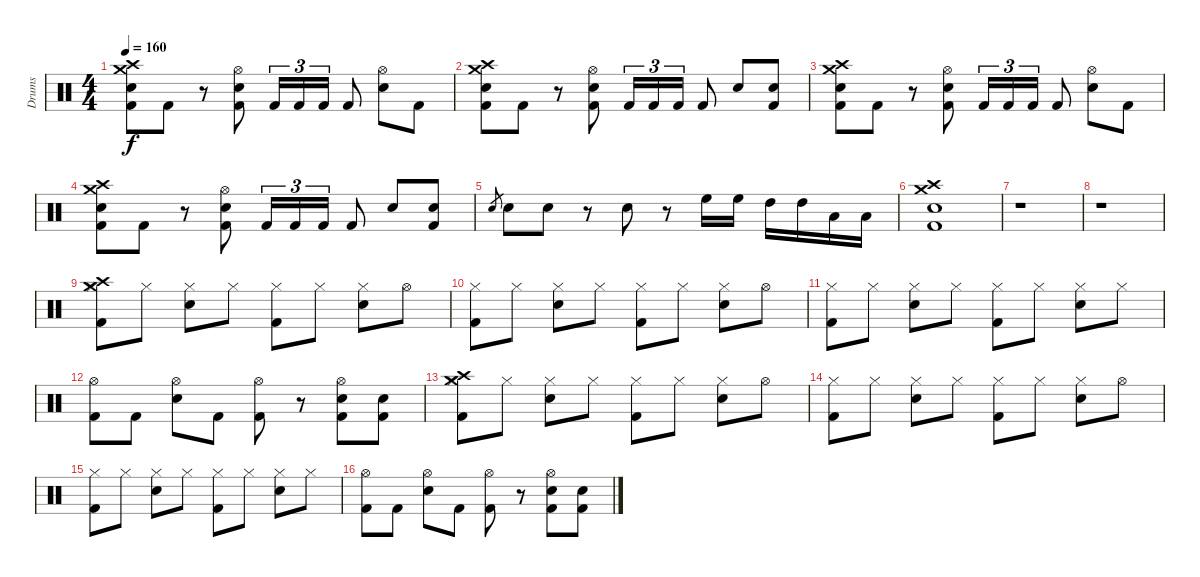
\track ("Drums" "Drums") {instrument percussion}
\staff {score}
\articulation defaults
\ts (4 4)
\tempo 160
\clef neutral
\ks c
("Crash medium (hit)" "Crash high (hit)" "Electric Snare (hit)" "Kick (hit) 2").8{dy f} "Kick (hit) 2".8 r.8 ("Hi-Hat (open)" "Electric Snare (hit)" "Kick (hit) 2").8 "Kick (hit) 2".16{tu (3 2)} "Kick (hit) 2".16{tu (3 2)} "Kick (hit) 2".16{tu (3 2)} "Kick (hit) 2".8 ("Hi-Hat (open)" "Electric Snare (hit)").8 "Kick (hit) 2".8 |
("Crash medium (hit)" "Crash high (hit)" "Electric Snare (hit)" "Kick (hit) 2").8 "Kick (hit) 2".8 r.8 ("Hi-Hat (open)" "Electric Snare (hit)" "Kick (hit) 2").8 "Kick (hit) 2".16{tu (3 2)} "Kick (hit) 2".16{tu (3 2)} "Kick (hit) 2".16{tu (3 2)} "Kick (hit) 2".8 "Electric Snare (hit)".8 ("Electric Snare (hit)" "Kick (hit) 2").8 |
("Crash medium (hit)" "Crash high (hit)" "Electric Snare (hit)" "Kick (hit) 2").8 "Kick (hit) 2".8 r.8 ("Hi-Hat (open)" "Electric Snare (hit)" "Kick (hit) 2").8 "Kick (hit) 2".16{tu (3 2)} "Kick (hit) 2".16{tu (3 2)} "Kick (hit) 2".16{tu (3 2)} "Kick (hit) 2".8 ("Hi-Hat (open)" "Electric Snare (hit)").8 "Kick (hit) 2".8 |
("Crash medium (hit)" "Crash high (hit)" "Electric Snare (hit)" "Kick (hit) 2").8 "Kick (hit) 2".8 r.8 ("Hi-Hat (open)" "Electric Snare (hit)" "Kick (hit) 2").8 "Kick (hit) 2".16{tu (3 2)} "Kick (hit) 2".16{tu (3 2)} "Kick (hit) 2".16{tu (3 2)} "Kick (hit) 2".8 "Electric Snare (hit)".8 ("Electric Snare (hit)" "Kick (hit) 2").8 |
"Electric Snare (hit)".8{gr} "Electric Snare (hit)".8 "Electric Snare (hit)".8 r.8 "Electric Snare (hit)".8 r.8 "High Floor Tom (hit)".16 "High Floor Tom (hit)".16 "High Tom (hit)".16 "High Tom (hit)".16 "Low Tom (hit)".16 "Low Tom (hit)".16 |
("Crash high (hit)" "Crash medium (hit)" "Electric Snare (hit)" "Kick (hit) 2").1 |
r.1 |
r.1 |
("Crash medium (hit)" "Crash high (hit)" "Hi-Hat (closed)" "Kick (hit) 2").8 "Hi-Hat (closed)".8 ("Hi-Hat (closed)" "Electric Snare (hit)").8 "Hi-Hat (closed)".8 ("Hi-Hat (closed)" "Kick (hit) 2").8 "Hi-Hat (closed)".8 ("Hi-Hat (closed)" "Electric Snare (hit)").8 "Hi-Hat (open)".8 |
("Hi-Hat (closed)" "Kick (hit) 2").8 "Hi-Hat (closed)".8 ("Hi-Hat (closed)" "Electric Snare (hit)").8 "Hi-Hat (closed)".8 ("Hi-Hat (closed)" "Kick (hit) 2").8 "Hi-Hat (closed)".8 ("Hi-Hat (closed)" "Electric Snare (hit)").8 "Hi-Hat (open)".8 |
("Hi-Hat (closed)" "Kick (hit) 2").8 "Hi-Hat (closed)".8 ("Hi-Hat (closed)" "Electric Snare (hit)").8 "Hi-Hat (closed)".8 ("Hi-Hat (closed)" "Kick (hit) 2").8 "Hi-Hat (closed)".8 ("Hi-Hat (closed)" "Electric Snare (hit)").8 "Hi-Hat (closed)".8 |
("Hi-Hat (open)" "Kick (hit) 2").8 "Kick (hit) 2".8 ("Hi-Hat (open)" "Electric Snare (hit)").8 "Kick (hit) 2".8 ("Hi-Hat (open)" "Kick (hit) 2").8 r.8 ("Hi-Hat (open)" "Electric Snare (hit)" "Kick (hit) 2").8 ("Electric Snare (hit)" "Kick (hit) 2").8 |
("Crash medium (hit)" "Crash high (hit)" "Hi-Hat (closed)" "Kick (hit) 2").8 "Hi-Hat (closed)".8 ("Hi-Hat (closed)" "Electric Snare (hit)").8 "Hi-Hat (closed)".8 ("Hi-Hat (closed)" "Kick (hit) 2").8 "Hi-Hat (closed)".8 ("Hi-Hat (closed)" "Electric Snare (hit)").8 "Hi-Hat (open)".8 |
("Hi-Hat (closed)" "Kick (hit) 2").8 "Hi-Hat (closed)".8 ("Hi-Hat (closed)" "Electric Snare (hit)").8 "Hi-Hat (closed)".8 ("Hi-Hat (closed)" "Kick (hit) 2").8 "Hi-Hat (closed)".8 ("Hi-Hat (closed)" "Electric Snare (hit)").8 "Hi-Hat (open)".8 |
("Hi-Hat (closed)" "Kick (hit) 2").8 "Hi-Hat (closed)".8 ("Hi-Hat (closed)" "Electric Snare (hit)").8 "Hi-Hat (closed)".8 ("Hi-Hat (closed)" "Kick (hit) 2").8 "Hi-Hat (closed)".8 ("Hi-Hat (closed)" "Electric Snare (hit)").8 "Hi-Hat (closed)".8 |
("Hi-Hat (open)" "Kick (hit) 2").8 "Kick (hit) 2".8 ("Hi-Hat (open)" "Electric Snare (hit)").8 "Kick (hit) 2".8 ("Hi-Hat (open)" "Kick (hit) 2").8 r.8 ("Hi-Hat (open)" "Electric Snare (hit)" "Kick (hit) 2").8 ("Electric Snare (hit)" "Kick (hit) 2").8
